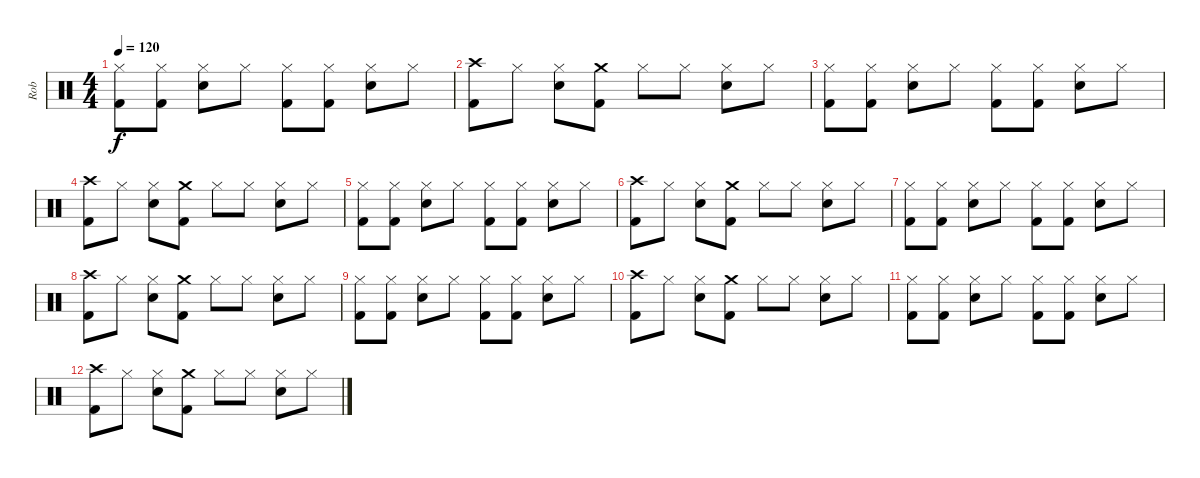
\track ("Rob" "Rob") {instrument percussion}
\staff {score}
\articulation defaults
\ts (4 4)
\tempo 120
\clef neutral
\ks c
("Hi-Hat (closed)" "Kick (hit) 2").8{dy f} ("Hi-Hat (closed)" "Kick (hit) 2").8 ("Hi-Hat (closed)" "Electric Snare (hit)").8 "Hi-Hat (closed)".8 ("Hi-Hat (closed)" "Kick (hit) 2").8 ("Hi-Hat (closed)" "Kick (hit) 2").8 ("Hi-Hat (closed)" "Electric Snare (hit)").8 "Hi-Hat (closed)".8 |
("Crash high (hit)" "Kick (hit) 2").8 "Hi-Hat (closed)".8 ("Hi-Hat (closed)" "Electric Snare (hit)").8 ("Crash medium (hit)" "Kick (hit) 2").8 "Hi-Hat (closed)".8 "Hi-Hat (closed)".8 ("Hi-Hat (closed)" "Electric Snare (hit)").8 "Hi-Hat (closed)".8 |
("Hi-Hat (closed)" "Kick (hit) 2").8 ("Hi-Hat (closed)" "Kick (hit) 2").8 ("Hi-Hat (closed)" "Electric Snare (hit)").8 "Hi-Hat (closed)".8 ("Hi-Hat (closed)" "Kick (hit) 2").8 ("Hi-Hat (closed)" "Kick (hit) 2").8 ("Hi-Hat (closed)" "Electric Snare (hit)").8 "Hi-Hat (closed)".8 |
("Crash high (hit)" "Kick (hit) 2").8 "Hi-Hat (closed)".8 ("Hi-Hat (closed)" "Electric Snare (hit)").8 ("Crash medium (hit)" "Kick (hit) 2").8 "Hi-Hat (closed)".8 "Hi-Hat (closed)".8 ("Hi-Hat (closed)" "Electric Snare (hit)").8 "Hi-Hat (closed)".8 |
("Hi-Hat (closed)" "Kick (hit) 2").8 ("Hi-Hat (closed)" "Kick (hit) 2").8 ("Hi-Hat (closed)" "Electric Snare (hit)").8 "Hi-Hat (closed)".8 ("Hi-Hat (closed)" "Kick (hit) 2").8 ("Hi-Hat (closed)" "Kick (hit) 2").8 ("Hi-Hat (closed)" "Electric Snare (hit)").8 "Hi-Hat (closed)".8 |
("Crash high (hit)" "Kick (hit) 2").8 "Hi-Hat (closed)".8 ("Hi-Hat (closed)" "Electric Snare (hit)").8 ("Crash medium (hit)" "Kick (hit) 2").8 "Hi-Hat (closed)".8 "Hi-Hat (closed)".8 ("Hi-Hat (closed)" "Electric Snare (hit)").8 "Hi-Hat (closed)".8 |
("Hi-Hat (closed)" "Kick (hit) 2").8 ("Hi-Hat (closed)" "Kick (hit) 2").8 ("Hi-Hat (closed)" "Electric Snare (hit)").8 "Hi-Hat (closed)".8 ("Hi-Hat (closed)" "Kick (hit) 2").8 ("Hi-Hat (closed)" "Kick (hit) 2").8 ("Hi-Hat (closed)" "Electric Snare (hit)").8 "Hi-Hat (closed)".8 |
("Crash high (hit)" "Kick (hit) 2").8 "Hi-Hat (closed)".8 ("Hi-Hat (closed)" "Electric Snare (hit)").8 ("Crash medium (hit)" "Kick (hit) 2").8 "Hi-Hat (closed)".8 "Hi-Hat (closed)".8 ("Hi-Hat (closed)" "Electric Snare (hit)").8 "Hi-Hat (closed)".8 |
("Hi-Hat (closed)" "Kick (hit) 2").8 ("Hi-Hat (closed)" "Kick (hit) 2").8 ("Hi-Hat (closed)" "Electric Snare (hit)").8 "Hi-Hat (closed)".8 ("Hi-Hat (closed)" "Kick (hit) 2").8 ("Hi-Hat (closed)" "Kick (hit) 2").8 ("Hi-Hat (closed)" "Electric Snare (hit)").8 "Hi-Hat (closed)".8 |
("Crash high (hit)" "Kick (hit) 2").8 "Hi-Hat (closed)".8 ("Hi-Hat (closed)" "Electric Snare (hit)").8 ("Crash medium (hit)" "Kick (hit) 2").8 "Hi-Hat (closed)".8 "Hi-Hat (closed)".8 ("Hi-Hat (closed)" "Electric Snare (hit)").8 "Hi-Hat (closed)".8 |
("Hi-Hat (closed)" "Kick (hit) 2").8 ("Hi-Hat (closed)" "Kick (hit) 2").8 ("Hi-Hat (closed)" "Electric Snare (hit)").8 "Hi-Hat (closed)".8 ("Hi-Hat (closed)" "Kick (hit) 2").8 ("Hi-Hat (closed)" "Kick (hit) 2").8 ("Hi-Hat (closed)" "Electric Snare (hit)").8 "Hi-Hat (closed)".8 |
("Crash high (hit)" "Kick (hit) 2").8 "Hi-Hat (closed)".8 ("Hi-Hat (closed)" "Electric Snare (hit)").8 ("Crash medium (hit)" "Kick (hit) 2").8 "Hi-Hat (closed)".8 "Hi-Hat (closed)".8 ("Hi-Hat (closed)" "Electric Snare (hit)").8 "Hi-Hat (closed)".8
